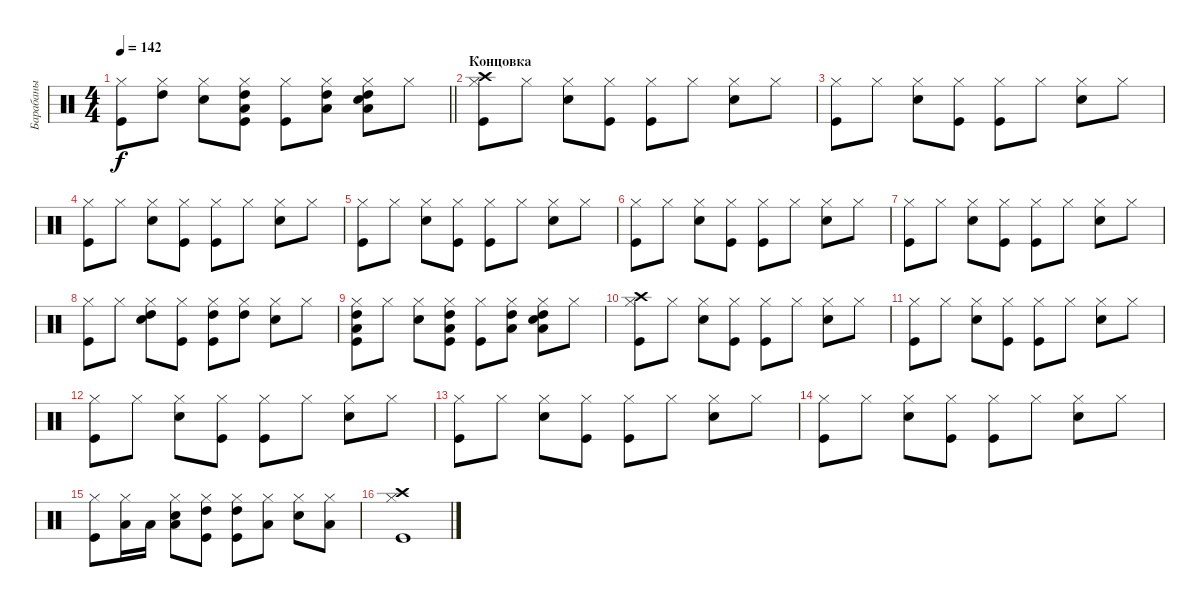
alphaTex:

\track ("Барабаны" "Барабаны") {instrument percussion}
\staff {score}
\articulation defaults
\ts (4 4)
\tempo 142
\clef neutral
\barLineRight lightlight
\ks c
("Kick (hit)" "Hi-Hat (closed)").8{dy f} ("Hi-Hat (closed)" "High Tom (hit)").8 ("Snare (hit) 2" "Hi-Hat (closed)").8 ("Kick (hit)" "Hi-Hat (closed)" "Low Floor Tom (hit)" "High Tom (hit)").8 ("Kick (hit)" "Hi-Hat (closed)").8 ("Hi-Hat (closed)" "Low Floor Tom (hit)" "High Tom (hit)").8 ("Snare (hit) 2" "Hi-Hat (closed)" "Low Floor Tom (hit)" "High Tom (hit)").8 "Hi-Hat (closed)".8 |
\section ("" "Концовка")
("Kick (hit)" "Hi-Hat (closed)" "Crash high (hit)").8 "Hi-Hat (closed)".8 ("Snare (hit) 2" "Hi-Hat (closed)").8 ("Kick (hit)" "Hi-Hat (closed)").8 ("Kick (hit)" "Hi-Hat (closed)").8 "Hi-Hat (closed)".8 ("Snare (hit) 2" "Hi-Hat (closed)").8 "Hi-Hat (closed)".8 |
("Kick (hit)" "Hi-Hat (closed)").8 "Hi-Hat (closed)".8 ("Snare (hit) 2" "Hi-Hat (closed)").8 ("Kick (hit)" "Hi-Hat (closed)").8 ("Kick (hit)" "Hi-Hat (closed)").8 "Hi-Hat (closed)".8 ("Snare (hit) 2" "Hi-Hat (closed)").8 "Hi-Hat (closed)".8 |
("Kick (hit)" "Hi-Hat (closed)").8 "Hi-Hat (closed)".8 ("Snare (hit) 2" "Hi-Hat (closed)").8 ("Kick (hit)" "Hi-Hat (closed)").8 ("Kick (hit)" "Hi-Hat (closed)").8 "Hi-Hat (closed)".8 ("Snare (hit) 2" "Hi-Hat (closed)").8 "Hi-Hat (closed)".8 |
("Kick (hit)" "Hi-Hat (closed)").8 "Hi-Hat (closed)".8 ("Snare (hit) 2" "Hi-Hat (closed)").8 ("Kick (hit)" "Hi-Hat (closed)").8 ("Kick (hit)" "Hi-Hat (closed)").8 "Hi-Hat (closed)".8 ("Snare (hit) 2" "Hi-Hat (closed)").8 "Hi-Hat (closed)".8 |
("Kick (hit)" "Hi-Hat (closed)").8 "Hi-Hat (closed)".8 ("Snare (hit) 2" "Hi-Hat (closed)").8 ("Kick (hit)" "Hi-Hat (closed)").8 ("Kick (hit)" "Hi-Hat (closed)").8 "Hi-Hat (closed)".8 ("Snare (hit) 2" "Hi-Hat (closed)").8 "Hi-Hat (closed)".8 |
("Kick (hit)" "Hi-Hat (closed)").8 "Hi-Hat (closed)".8 ("Snare (hit) 2" "Hi-Hat (closed)").8 ("Kick (hit)" "Hi-Hat (closed)").8 ("Kick (hit)" "Hi-Hat (closed)").8 "Hi-Hat (closed)".8 ("Snare (hit) 2" "Hi-Hat (closed)").8 "Hi-Hat (closed)".8 |
("Kick (hit)" "Hi-Hat (closed)").8 "Hi-Hat (closed)".8 ("Snare (hit) 2" "Hi-Hat (closed)" "High Tom (hit)").8 ("Kick (hit)" "Hi-Hat (closed)").8 ("Kick (hit)" "Hi-Hat (closed)" "High Tom (hit)").8 ("Hi-Hat (closed)" "High Tom (hit)").8 ("Snare (hit) 2" "Hi-Hat (closed)").8 "Hi-Hat (closed)".8 |
("Kick (hit)" "Hi-Hat (closed)" "Low Floor Tom (hit)" "High Tom (hit)").8 "Hi-Hat (closed)".8 ("Snare (hit) 2" "Hi-Hat (closed)").8 ("Kick (hit)" "Hi-Hat (closed)" "Low Floor Tom (hit)" "High Tom (hit)").8 ("Kick (hit)" "Hi-Hat (closed)").8 ("Hi-Hat (closed)" "Low Floor Tom (hit)" "High Tom (hit)").8 ("Snare (hit) 2" "Hi-Hat (closed)" "Low Floor Tom (hit)" "High Tom (hit)").8 "Hi-Hat (closed)".8 |
("Kick (hit)" "Hi-Hat (closed)" "Crash high (hit)").8 "Hi-Hat (closed)".8 ("Snare (hit) 2" "Hi-Hat (closed)").8 ("Kick (hit)" "Hi-Hat (closed)").8 ("Kick (hit)" "Hi-Hat (closed)").8 "Hi-Hat (closed)".8 ("Snare (hit) 2" "Hi-Hat (closed)").8 "Hi-Hat (closed)".8 |
("Kick (hit)" "Hi-Hat (closed)").8 "Hi-Hat (closed)".8 ("Snare (hit) 2" "Hi-Hat (closed)").8 ("Kick (hit)" "Hi-Hat (closed)").8 ("Kick (hit)" "Hi-Hat (closed)").8 "Hi-Hat (closed)".8 ("Snare (hit) 2" "Hi-Hat (closed)").8 "Hi-Hat (closed)".8 |
("Kick (hit)" "Hi-Hat (closed)").8 "Hi-Hat (closed)".8 ("Snare (hit) 2" "Hi-Hat (closed)").8 ("Kick (hit)" "Hi-Hat (closed)").8 ("Kick (hit)" "Hi-Hat (closed)").8 "Hi-Hat (closed)".8 ("Snare (hit) 2" "Hi-Hat (closed)").8 "Hi-Hat (closed)".8 |
("Kick (hit)" "Hi-Hat (closed)").8 "Hi-Hat (closed)".8 ("Snare (hit) 2" "Hi-Hat (closed)").8 ("Kick (hit)" "Hi-Hat (closed)").8 ("Kick (hit)" "Hi-Hat (closed)").8 "Hi-Hat (closed)".8 ("Snare (hit) 2" "Hi-Hat (closed)").8 "Hi-Hat (closed)".8 |
("Kick (hit)" "Hi-Hat (closed)").8 "Hi-Hat (closed)".8 ("Snare (hit) 2" "Hi-Hat (closed)").8 ("Kick (hit)" "Hi-Hat (closed)").8 ("Kick (hit)" "Hi-Hat (closed)").8 "Hi-Hat (closed)".8 ("Snare (hit) 2" "Hi-Hat (closed)").8 "Hi-Hat (closed)".8 |
("Kick (hit)" "Hi-Hat (closed)").8 ("Hi-Hat (closed)" "Low Tom (hit)").16 "Low Tom (hit)".16 ("Snare (hit) 2" "Hi-Hat (closed)" "Low Tom (hit)").8 ("Kick (hit)" "Hi-Hat (closed)" "High Tom (hit)").8 ("Kick (hit)" "Hi-Hat (closed)" "High Tom (hit)").8 ("Hi-Hat (closed)" "Low Floor Tom (hit)").8 ("Snare (hit) 2" "Hi-Hat (closed)").8 ("Hi-Hat (closed)" "Low Floor Tom (hit)").8 |
("Kick (hit)" "Hi-Hat (closed)" "Crash high (hit)").1
